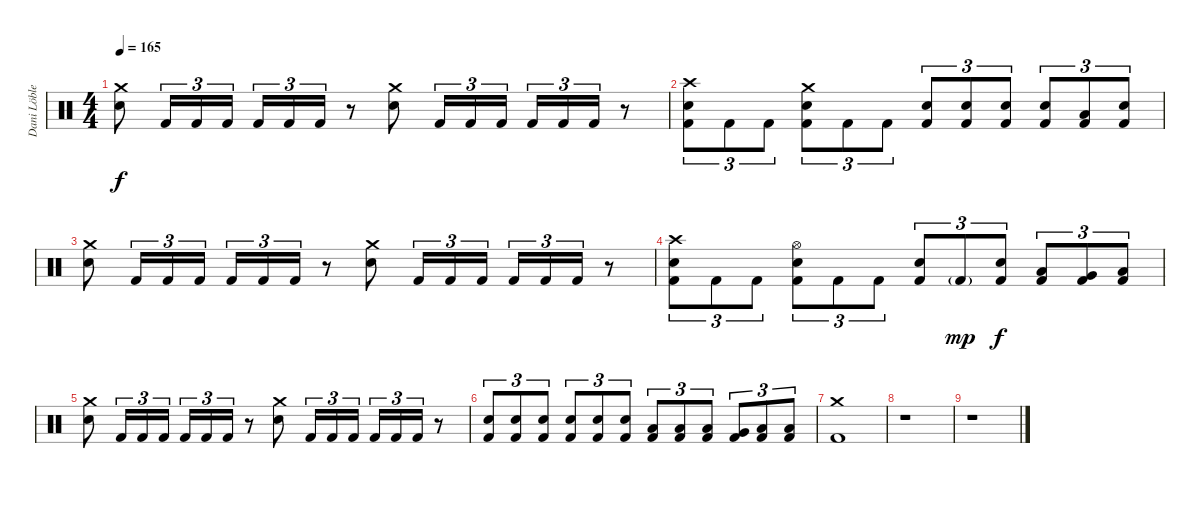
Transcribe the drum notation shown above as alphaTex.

\track ("Dani Löble" "Dani Löble") {instrument percussion}
\staff {score}
\articulation defaults
\ts (4 4)
\tempo 165
\clef neutral
\ks c
("Crash medium (hit)" "Electric Snare (hit)").8{dy f} "Kick (hit) 2".16{tu (3 2)} "Kick (hit) 2".16{tu (3 2)} "Kick (hit) 2".16{tu (3 2)} "Kick (hit) 2".16{tu (3 2)} "Kick (hit) 2".16{tu (3 2)} "Kick (hit) 2".16{tu (3 2)} r.8 ("Crash medium (hit)" "Electric Snare (hit)").8 "Kick (hit) 2".16{tu (3 2)} "Kick (hit) 2".16{tu (3 2)} "Kick (hit) 2".16{tu (3 2)} "Kick (hit) 2".16{tu (3 2)} "Kick (hit) 2".16{tu (3 2)} "Kick (hit) 2".16{tu (3 2)} r.8 |
("Crash high (hit)" "Electric Snare (hit)" "Kick (hit) 2").8{tu (3 2)} "Kick (hit) 2".8{tu (3 2)} "Kick (hit) 2".8{tu (3 2)} ("Crash medium (hit)" "Electric Snare (hit)" "Kick (hit) 2").8{tu (3 2)} "Kick (hit) 2".8{tu (3 2)} "Kick (hit) 2".8{tu (3 2)} ("Electric Snare (hit)" "Kick (hit) 2").8{tu (3 2)} ("Electric Snare (hit)" "Kick (hit) 2").8{tu (3 2)} ("Electric Snare (hit)" "Kick (hit) 2").8{tu (3 2)} ("Electric Snare (hit)" "Kick (hit) 2").8{tu (3 2)} ("Low Floor Tom (hit)" "Kick (hit) 2").8{tu (3 2)} ("Electric Snare (hit)" "Kick (hit) 2").8{tu (3 2)} |
("Crash medium (hit)" "Electric Snare (hit)").8 "Kick (hit) 2".16{tu (3 2)} "Kick (hit) 2".16{tu (3 2)} "Kick (hit) 2".16{tu (3 2)} "Kick (hit) 2".16{tu (3 2)} "Kick (hit) 2".16{tu (3 2)} "Kick (hit) 2".16{tu (3 2)} r.8 ("Crash medium (hit)" "Electric Snare (hit)").8 "Kick (hit) 2".16{tu (3 2)} "Kick (hit) 2".16{tu (3 2)} "Kick (hit) 2".16{tu (3 2)} "Kick (hit) 2".16{tu (3 2)} "Kick (hit) 2".16{tu (3 2)} "Kick (hit) 2".16{tu (3 2)} r.8 |
("Crash high (hit)" "Electric Snare (hit)" "Kick (hit) 2").8{tu (3 2)} "Kick (hit) 2".8{tu (3 2)} "Kick (hit) 2".8{tu (3 2)} ("Hi-Hat (open)" "Electric Snare (hit)" "Kick (hit) 2").8{tu (3 2)} "Kick (hit) 2".8{tu (3 2)} "Kick (hit) 2".8{tu (3 2)} ("Electric Snare (hit)" "Kick (hit) 2").8{tu (3 2)} "Kick (hit) 2"{g}.8{tu (3 2) dy mp} ("Electric Snare (hit)" "Kick (hit) 2").8{tu (3 2) dy f} ("Low Tom (hit)" "Kick (hit) 2").8{tu (3 2)} ("Very Low Tom (hit)" "Kick (hit) 2").8{tu (3 2)} ("Low Floor Tom (hit)" "Kick (hit) 2").8{tu (3 2)} |
("Crash medium (hit)" "Electric Snare (hit)").8 "Kick (hit) 2".16{tu (3 2)} "Kick (hit) 2".16{tu (3 2)} "Kick (hit) 2".16{tu (3 2)} "Kick (hit) 2".16{tu (3 2)} "Kick (hit) 2".16{tu (3 2)} "Kick (hit) 2".16{tu (3 2)} r.8 ("Crash medium (hit)" "Electric Snare (hit)").8 "Kick (hit) 2".16{tu (3 2)} "Kick (hit) 2".16{tu (3 2)} "Kick (hit) 2".16{tu (3 2)} "Kick (hit) 2".16{tu (3 2)} "Kick (hit) 2".16{tu (3 2)} "Kick (hit) 2".16{tu (3 2)} r.8 |
("Electric Snare (hit)" "Kick (hit) 2").8{tu (3 2)} ("Electric Snare (hit)" "Kick (hit) 2").8{tu (3 2)} ("Electric Snare (hit)" "Kick (hit) 2").8{tu (3 2)} ("Electric Snare (hit)" "Kick (hit) 2").8{tu (3 2)} ("Electric Snare (hit)" "Kick (hit) 2").8{tu (3 2)} ("Electric Snare (hit)" "Kick (hit) 2").8{tu (3 2)} ("Low Tom (hit)" "Kick (hit) 2").8{tu (3 2)} ("Low Tom (hit)" "Kick (hit) 2").8{tu (3 2)} ("Low Tom (hit)" "Kick (hit) 2").8{tu (3 2)} ("Very Low Tom (hit)" "Kick (hit) 2").8{tu (3 2)} ("Low Floor Tom (hit)" "Kick (hit) 2").8{tu (3 2)} ("Low Floor Tom (hit)" "Kick (hit) 2").8{tu (3 2)} |
("Crash medium (hit)" "Kick (hit) 2").1 |
r.1 |
r.1
